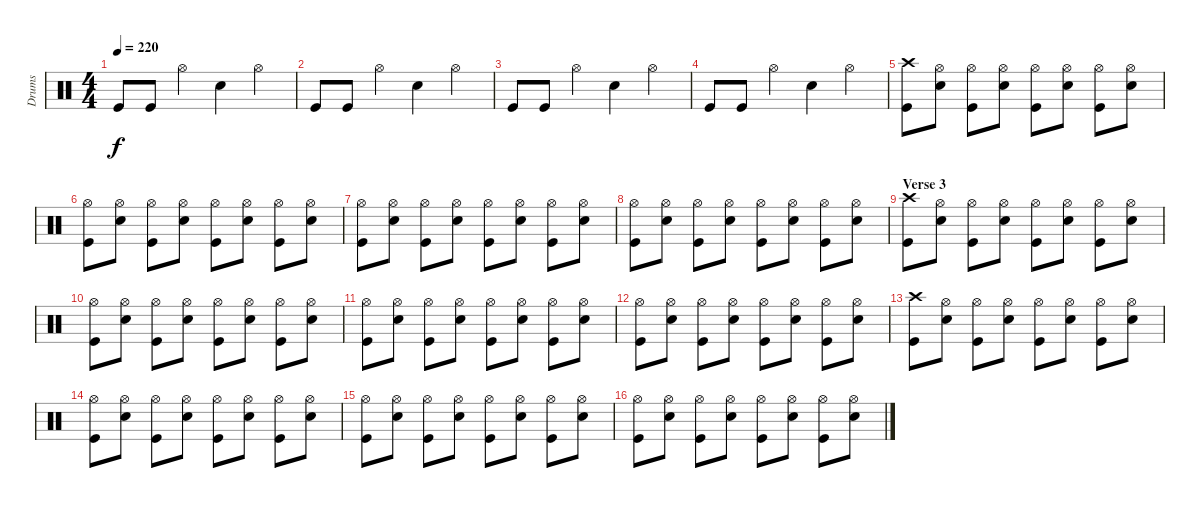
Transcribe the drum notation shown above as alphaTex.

\track ("Drums" "Drums") {instrument percussion}
\staff {score}
\articulation defaults
\ts (4 4)
\tempo 220
\clef neutral
\ks c "Kick (hit)".8{dy f} "Kick (hit)".8 "Hi-Hat (open)".4 "Electric Snare (hit)".4 "Hi-Hat (open)".4
|
"Kick (hit)".8 "Kick (hit)".8 "Hi-Hat (open)".4 "Electric Snare (hit)".4 "Hi-Hat (open)".4 |
"Kick (hit)".8 "Kick (hit)".8 "Hi-Hat (open)".4 "Electric Snare (hit)".4 "Hi-Hat (open)".4 |
"Kick (hit)".8 "Kick (hit)".8 "Hi-Hat (open)".4 "Electric Snare (hit)".4 "Hi-Hat (open)".4 |
("Crash high (hit)" "Kick (hit)").8 ("Hi-Hat (open)" "Electric Snare (hit)").8 ("Hi-Hat (open)" "Kick (hit)").8 ("Hi-Hat (open)" "Electric Snare (hit)").8 ("Hi-Hat (open)" "Kick (hit)").8 ("Hi-Hat (open)" "Electric Snare (hit)").8 ("Hi-Hat (open)" "Kick (hit)").8 ("Hi-Hat (open)" "Electric Snare (hit)").8 |
("Hi-Hat (open)" "Kick (hit)").8 ("Hi-Hat (open)" "Electric Snare (hit)").8 ("Hi-Hat (open)" "Kick (hit)").8 ("Hi-Hat (open)" "Electric Snare (hit)").8 ("Hi-Hat (open)" "Kick (hit)").8 ("Hi-Hat (open)" "Electric Snare (hit)").8 ("Hi-Hat (open)" "Kick (hit)").8 ("Hi-Hat (open)" "Electric Snare (hit)").8 |
("Hi-Hat (open)" "Kick (hit)").8 ("Hi-Hat (open)" "Electric Snare (hit)").8 ("Hi-Hat (open)" "Kick (hit)").8 ("Hi-Hat (open)" "Electric Snare (hit)").8 ("Hi-Hat (open)" "Kick (hit)").8 ("Hi-Hat (open)" "Electric Snare (hit)").8 ("Hi-Hat (open)" "Kick (hit)").8 ("Hi-Hat (open)" "Electric Snare (hit)").8 |
("Hi-Hat (open)" "Kick (hit)").8 ("Hi-Hat (open)" "Electric Snare (hit)").8 ("Hi-Hat (open)" "Kick (hit)").8 ("Hi-Hat (open)" "Electric Snare (hit)").8 ("Hi-Hat (open)" "Kick (hit)").8 ("Hi-Hat (open)" "Electric Snare (hit)").8 ("Hi-Hat (open)" "Kick (hit)").8 ("Hi-Hat (open)" "Electric Snare (hit)").8 |
\section ("" "Verse 3")
("Crash high (hit)" "Kick (hit)").8 ("Hi-Hat (open)" "Electric Snare (hit)").8 ("Hi-Hat (open)" "Kick (hit)").8 ("Hi-Hat (open)" "Electric Snare (hit)").8 ("Hi-Hat (open)" "Kick (hit)").8 ("Hi-Hat (open)" "Electric Snare (hit)").8 ("Hi-Hat (open)" "Kick (hit)").8 ("Hi-Hat (open)" "Electric Snare (hit)").8 |
("Hi-Hat (open)" "Kick (hit)").8 ("Hi-Hat (open)" "Electric Snare (hit)").8 ("Hi-Hat (open)" "Kick (hit)").8 ("Hi-Hat (open)" "Electric Snare (hit)").8 ("Hi-Hat (open)" "Kick (hit)").8 ("Hi-Hat (open)" "Electric Snare (hit)").8 ("Hi-Hat (open)" "Kick (hit)").8 ("Hi-Hat (open)" "Electric Snare (hit)").8 |
("Hi-Hat (open)" "Kick (hit)").8 ("Hi-Hat (open)" "Electric Snare (hit)").8 ("Hi-Hat (open)" "Kick (hit)").8 ("Hi-Hat (open)" "Electric Snare (hit)").8 ("Hi-Hat (open)" "Kick (hit)").8 ("Hi-Hat (open)" "Electric Snare (hit)").8 ("Hi-Hat (open)" "Kick (hit)").8 ("Hi-Hat (open)" "Electric Snare (hit)").8 |
("Hi-Hat (open)" "Kick (hit)").8 ("Hi-Hat (open)" "Electric Snare (hit)").8 ("Hi-Hat (open)" "Kick (hit)").8 ("Hi-Hat (open)" "Electric Snare (hit)").8 ("Hi-Hat (open)" "Kick (hit)").8 ("Hi-Hat (open)" "Electric Snare (hit)").8 ("Hi-Hat (open)" "Kick (hit)").8 ("Hi-Hat (open)" "Electric Snare (hit)").8 |
("Crash high (hit)" "Kick (hit)").8 ("Hi-Hat (open)" "Electric Snare (hit)").8 ("Hi-Hat (open)" "Kick (hit)").8 ("Hi-Hat (open)" "Electric Snare (hit)").8 ("Hi-Hat (open)" "Kick (hit)").8 ("Hi-Hat (open)" "Electric Snare (hit)").8 ("Hi-Hat (open)" "Kick (hit)").8 ("Hi-Hat (open)" "Electric Snare (hit)").8 |
("Hi-Hat (open)" "Kick (hit)").8 ("Hi-Hat (open)" "Electric Snare (hit)").8 ("Hi-Hat (open)" "Kick (hit)").8 ("Hi-Hat (open)" "Electric Snare (hit)").8 ("Hi-Hat (open)" "Kick (hit)").8 ("Hi-Hat (open)" "Electric Snare (hit)").8 ("Hi-Hat (open)" "Kick (hit)").8 ("Hi-Hat (open)" "Electric Snare (hit)").8 |
("Hi-Hat (open)" "Kick (hit)").8 ("Hi-Hat (open)" "Electric Snare (hit)").8 ("Hi-Hat (open)" "Kick (hit)").8 ("Hi-Hat (open)" "Electric Snare (hit)").8 ("Hi-Hat (open)" "Kick (hit)").8 ("Hi-Hat (open)" "Electric Snare (hit)").8 ("Hi-Hat (open)" "Kick (hit)").8 ("Hi-Hat (open)" "Electric Snare (hit)").8 |
("Hi-Hat (open)" "Kick (hit)").8 ("Hi-Hat (open)" "Electric Snare (hit)").8 ("Hi-Hat (open)" "Kick (hit)").8 ("Hi-Hat (open)" "Electric Snare (hit)").8 ("Hi-Hat (open)" "Kick (hit)").8 ("Hi-Hat (open)" "Electric Snare (hit)").8 ("Hi-Hat (open)" "Kick (hit)").8 ("Hi-Hat (open)" "Electric Snare (hit)").8
